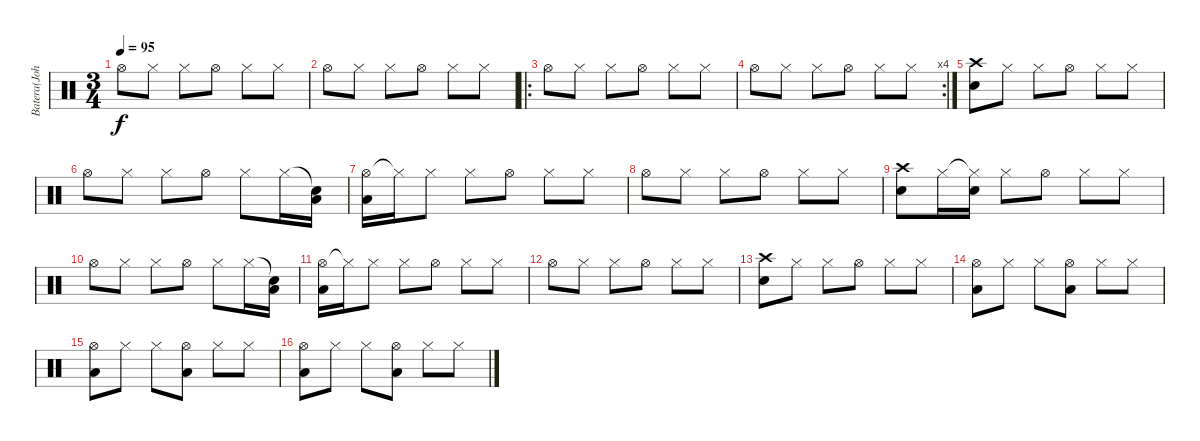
\track ("Batera(John)" "Batera(Joh") {instrument percussion}
\staff {score}
\articulation defaults
\ts (3 4)
\tempo 95
\clef neutral
\ks c "Hi-Hat (open)".8{dy f} "Hi-Hat (closed)".8 "Hi-Hat (closed)".8 "Hi-Hat (open)".8 "Hi-Hat (closed)".8 "Hi-Hat (closed)".8
|
"Hi-Hat (open)".8 "Hi-Hat (closed)".8 "Hi-Hat (closed)".8 "Hi-Hat (open)".8 "Hi-Hat (closed)".8 "Hi-Hat (closed)".8 |
\ro "Hi-Hat (open)".8 "Hi-Hat (closed)".8 "Hi-Hat (closed)".8 "Hi-Hat (open)".8 "Hi-Hat (closed)".8 "Hi-Hat (closed)".8
|
\rc 4 "Hi-Hat (open)".8 "Hi-Hat (closed)".8 "Hi-Hat (closed)".8 "Hi-Hat (open)".8 "Hi-Hat (closed)".8 "Hi-Hat (closed)".8
|
("Crash high (hit)" "Snare (hit) 2").8 "Hi-Hat (closed)".8 "Hi-Hat (closed)".8 "Hi-Hat (open)".8 "Hi-Hat (closed)".8 "Hi-Hat (closed)".8 |
"Hi-Hat (open)".8 "Hi-Hat (closed)".8 "Hi-Hat (closed)".8 "Hi-Hat (open)".8 "Hi-Hat (closed)".8 "Hi-Hat (closed)".16 ("Snare (hit)"{t} "Low Tom (hit)").16 |
("Hi-Hat (open)" "Low Tom (hit)").16 "Hi-Hat (closed)"{t}.16 "Hi-Hat (closed)".8 "Hi-Hat (closed)".8 "Hi-Hat (open)".8 "Hi-Hat (closed)".8 "Hi-Hat (closed)".8 |
"Hi-Hat (open)".8 "Hi-Hat (closed)".8 "Hi-Hat (closed)".8 "Hi-Hat (open)".8 "Hi-Hat (closed)".8 "Hi-Hat (closed)".8 |
("Crash high (hit)" "Snare (hit) 2").8 "Hi-Hat (closed)".16 ("Hi-Hat (closed)"{t} "Snare (hit) 2").16 "Hi-Hat (closed)".8 "Hi-Hat (open)".8 "Hi-Hat (closed)".8 "Hi-Hat (closed)".8 |
"Hi-Hat (open)".8 "Hi-Hat (closed)".8 "Hi-Hat (closed)".8 "Hi-Hat (open)".8 "Hi-Hat (closed)".8 "Hi-Hat (closed)".16 ("Snare (hit)"{t} "Low Tom (hit)").16 |
("Hi-Hat (open)" "Low Tom (hit)").16 "Hi-Hat (closed)"{t}.16 "Hi-Hat (closed)".8 "Hi-Hat (closed)".8 "Hi-Hat (open)".8 "Hi-Hat (closed)".8 "Hi-Hat (closed)".8 |
"Hi-Hat (open)".8 "Hi-Hat (closed)".8 "Hi-Hat (closed)".8 "Hi-Hat (open)".8 "Hi-Hat (closed)".8 "Hi-Hat (closed)".8 |
("Crash high (hit)" "Snare (hit) 2").8 "Hi-Hat (closed)".8 "Hi-Hat (closed)".8 "Hi-Hat (open)".8 "Hi-Hat (closed)".8 "Hi-Hat (closed)".8 |
("Hi-Hat (open)" "Low Tom (hit)").8 "Hi-Hat (closed)".8 "Hi-Hat (closed)".8 ("Hi-Hat (open)" "Low Tom (hit)").8 "Hi-Hat (closed)".8 "Hi-Hat (closed)".8 |
("Hi-Hat (open)" "Low Tom (hit)").8 "Hi-Hat (closed)".8 "Hi-Hat (closed)".8 ("Hi-Hat (open)" "Low Tom (hit)").8 "Hi-Hat (closed)".8 "Hi-Hat (closed)".8 |
("Hi-Hat (open)" "Low Tom (hit)").8 "Hi-Hat (closed)".8 "Hi-Hat (closed)".8 ("Hi-Hat (open)" "Low Tom (hit)").8 "Hi-Hat (closed)".8 "Hi-Hat (closed)".8
